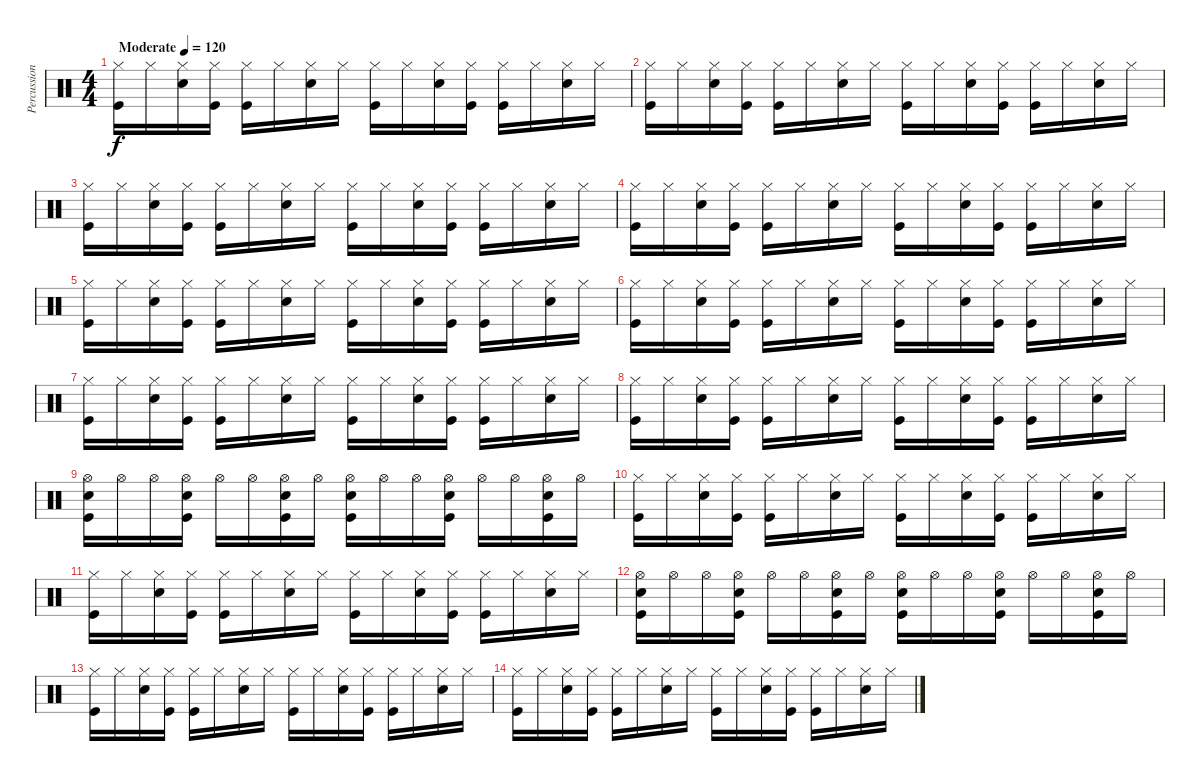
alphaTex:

\track ("Percussion" "Percussion") {instrument percussion}
\staff {score}
\articulation defaults
\ts (4 4)
\tempo (120 "Moderate")
\clef neutral
\ks c
("Hi-Hat (closed)" "Kick (hit)").16{dy f volume 13} "Hi-Hat (closed)".16 ("Hi-Hat (closed)" "Snare (hit) 2").16 ("Hi-Hat (closed)" "Kick (hit)").16 ("Hi-Hat (closed)" "Kick (hit)").16 "Hi-Hat (closed)".16 ("Hi-Hat (closed)" "Snare (hit) 2").16 "Hi-Hat (closed)".16 ("Hi-Hat (closed)" "Kick (hit)").16 "Hi-Hat (closed)".16 ("Hi-Hat (closed)" "Snare (hit) 2").16 ("Hi-Hat (closed)" "Kick (hit)").16 ("Hi-Hat (closed)" "Kick (hit)").16 "Hi-Hat (closed)".16 ("Hi-Hat (closed)" "Snare (hit) 2").16 "Hi-Hat (closed)".16 |
("Hi-Hat (closed)" "Kick (hit)").16 "Hi-Hat (closed)".16 ("Hi-Hat (closed)" "Snare (hit) 2").16 ("Hi-Hat (closed)" "Kick (hit)").16 ("Hi-Hat (closed)" "Kick (hit)").16 "Hi-Hat (closed)".16 ("Hi-Hat (closed)" "Snare (hit) 2").16 "Hi-Hat (closed)".16 ("Hi-Hat (closed)" "Kick (hit)").16 "Hi-Hat (closed)".16 ("Hi-Hat (closed)" "Snare (hit) 2").16 ("Hi-Hat (closed)" "Kick (hit)").16 ("Hi-Hat (closed)" "Kick (hit)").16 "Hi-Hat (closed)".16 ("Hi-Hat (closed)" "Snare (hit) 2").16 "Hi-Hat (closed)".16 |
("Hi-Hat (closed)" "Kick (hit)").16 "Hi-Hat (closed)".16 ("Hi-Hat (closed)" "Snare (hit) 2").16 ("Hi-Hat (closed)" "Kick (hit)").16 ("Hi-Hat (closed)" "Kick (hit)").16 "Hi-Hat (closed)".16 ("Hi-Hat (closed)" "Snare (hit) 2").16 "Hi-Hat (closed)".16 ("Hi-Hat (closed)" "Kick (hit)").16 "Hi-Hat (closed)".16 ("Hi-Hat (closed)" "Snare (hit) 2").16 ("Hi-Hat (closed)" "Kick (hit)").16 ("Hi-Hat (closed)" "Kick (hit)").16 "Hi-Hat (closed)".16 ("Hi-Hat (closed)" "Snare (hit) 2").16 "Hi-Hat (closed)".16 |
("Hi-Hat (closed)" "Kick (hit)").16 "Hi-Hat (closed)".16 ("Hi-Hat (closed)" "Snare (hit) 2").16 ("Hi-Hat (closed)" "Kick (hit)").16 ("Hi-Hat (closed)" "Kick (hit)").16 "Hi-Hat (closed)".16 ("Hi-Hat (closed)" "Snare (hit) 2").16 "Hi-Hat (closed)".16 ("Hi-Hat (closed)" "Kick (hit)").16 "Hi-Hat (closed)".16 ("Hi-Hat (closed)" "Snare (hit) 2").16 ("Hi-Hat (closed)" "Kick (hit)").16 ("Hi-Hat (closed)" "Kick (hit)").16 "Hi-Hat (closed)".16 ("Hi-Hat (closed)" "Snare (hit) 2").16 "Hi-Hat (closed)".16 |
("Hi-Hat (closed)" "Kick (hit)").16 "Hi-Hat (closed)".16 ("Hi-Hat (closed)" "Snare (hit) 2").16 ("Hi-Hat (closed)" "Kick (hit)").16 ("Hi-Hat (closed)" "Kick (hit)").16 "Hi-Hat (closed)".16 ("Hi-Hat (closed)" "Snare (hit) 2").16 "Hi-Hat (closed)".16 ("Hi-Hat (closed)" "Kick (hit)").16 "Hi-Hat (closed)".16 ("Hi-Hat (closed)" "Snare (hit) 2").16 ("Hi-Hat (closed)" "Kick (hit)").16 ("Hi-Hat (closed)" "Kick (hit)").16 "Hi-Hat (closed)".16 ("Hi-Hat (closed)" "Snare (hit) 2").16 "Hi-Hat (closed)".16 |
("Hi-Hat (closed)" "Kick (hit)").16 "Hi-Hat (closed)".16 ("Hi-Hat (closed)" "Snare (hit) 2").16 ("Hi-Hat (closed)" "Kick (hit)").16 ("Hi-Hat (closed)" "Kick (hit)").16 "Hi-Hat (closed)".16 ("Hi-Hat (closed)" "Snare (hit) 2").16 "Hi-Hat (closed)".16 ("Hi-Hat (closed)" "Kick (hit)").16 "Hi-Hat (closed)".16 ("Hi-Hat (closed)" "Snare (hit) 2").16 ("Hi-Hat (closed)" "Kick (hit)").16 ("Hi-Hat (closed)" "Kick (hit)").16 "Hi-Hat (closed)".16 ("Hi-Hat (closed)" "Snare (hit) 2").16 "Hi-Hat (closed)".16 |
("Hi-Hat (closed)" "Kick (hit)").16 "Hi-Hat (closed)".16 ("Hi-Hat (closed)" "Snare (hit) 2").16 ("Hi-Hat (closed)" "Kick (hit)").16 ("Hi-Hat (closed)" "Kick (hit)").16 "Hi-Hat (closed)".16 ("Hi-Hat (closed)" "Snare (hit) 2").16 "Hi-Hat (closed)".16 ("Hi-Hat (closed)" "Kick (hit)").16 "Hi-Hat (closed)".16 ("Hi-Hat (closed)" "Snare (hit) 2").16 ("Hi-Hat (closed)" "Kick (hit)").16 ("Hi-Hat (closed)" "Kick (hit)").16 "Hi-Hat (closed)".16 ("Hi-Hat (closed)" "Snare (hit) 2").16 "Hi-Hat (closed)".16 |
("Hi-Hat (closed)" "Kick (hit)").16 "Hi-Hat (closed)".16 ("Hi-Hat (closed)" "Snare (hit) 2").16 ("Hi-Hat (closed)" "Kick (hit)").16 ("Hi-Hat (closed)" "Kick (hit)").16 "Hi-Hat (closed)".16 ("Hi-Hat (closed)" "Snare (hit) 2").16 "Hi-Hat (closed)".16 ("Hi-Hat (closed)" "Kick (hit)").16 "Hi-Hat (closed)".16 ("Hi-Hat (closed)" "Snare (hit) 2").16 ("Hi-Hat (closed)" "Kick (hit)").16 ("Hi-Hat (closed)" "Kick (hit)").16 "Hi-Hat (closed)".16 ("Hi-Hat (closed)" "Snare (hit) 2").16 "Hi-Hat (closed)".16 |
("Hi-Hat (open)" "Snare (hit) 2" "Kick (hit)").16 "Hi-Hat (open)".16 "Hi-Hat (open)".16 ("Hi-Hat (open)" "Snare (hit) 2" "Kick (hit)").16 "Hi-Hat (open)".16 "Hi-Hat (open)".16 ("Hi-Hat (open)" "Snare (hit) 2" "Kick (hit)").16 "Hi-Hat (open)".16 ("Hi-Hat (open)" "Snare (hit) 2" "Kick (hit)").16 "Hi-Hat (open)".16 "Hi-Hat (open)".16 ("Hi-Hat (open)" "Snare (hit) 2" "Kick (hit)").16 "Hi-Hat (open)".16 "Hi-Hat (open)".16 ("Hi-Hat (open)" "Snare (hit) 2" "Kick (hit)").16 "Hi-Hat (open)".16 |
("Hi-Hat (closed)" "Kick (hit)").16 "Hi-Hat (closed)".16 ("Hi-Hat (closed)" "Snare (hit) 2").16 ("Hi-Hat (closed)" "Kick (hit)").16 ("Hi-Hat (closed)" "Kick (hit)").16 "Hi-Hat (closed)".16 ("Hi-Hat (closed)" "Snare (hit) 2").16 "Hi-Hat (closed)".16 ("Hi-Hat (closed)" "Kick (hit)").16 "Hi-Hat (closed)".16 ("Hi-Hat (closed)" "Snare (hit) 2").16 ("Hi-Hat (closed)" "Kick (hit)").16 ("Hi-Hat (closed)" "Kick (hit)").16 "Hi-Hat (closed)".16 ("Hi-Hat (closed)" "Snare (hit) 2").16 "Hi-Hat (closed)".16 |
("Hi-Hat (closed)" "Kick (hit)").16 "Hi-Hat (closed)".16 ("Hi-Hat (closed)" "Snare (hit) 2").16 ("Hi-Hat (closed)" "Kick (hit)").16 ("Hi-Hat (closed)" "Kick (hit)").16 "Hi-Hat (closed)".16 ("Hi-Hat (closed)" "Snare (hit) 2").16 "Hi-Hat (closed)".16 ("Hi-Hat (closed)" "Kick (hit)").16 "Hi-Hat (closed)".16 ("Hi-Hat (closed)" "Snare (hit) 2").16 ("Hi-Hat (closed)" "Kick (hit)").16 ("Hi-Hat (closed)" "Kick (hit)").16 "Hi-Hat (closed)".16 ("Hi-Hat (closed)" "Snare (hit) 2").16 "Hi-Hat (closed)".16 |
("Hi-Hat (open)" "Snare (hit) 2" "Kick (hit)").16 "Hi-Hat (open)".16 "Hi-Hat (open)".16 ("Hi-Hat (open)" "Snare (hit) 2" "Kick (hit)").16 "Hi-Hat (open)".16 "Hi-Hat (open)".16 ("Hi-Hat (open)" "Snare (hit) 2" "Kick (hit)").16 "Hi-Hat (open)".16 ("Hi-Hat (open)" "Snare (hit) 2" "Kick (hit)").16 "Hi-Hat (open)".16 "Hi-Hat (open)".16 ("Hi-Hat (open)" "Snare (hit) 2" "Kick (hit)").16 "Hi-Hat (open)".16 "Hi-Hat (open)".16 ("Hi-Hat (open)" "Snare (hit) 2" "Kick (hit)").16 "Hi-Hat (open)".16 |
("Hi-Hat (closed)" "Kick (hit)").16 "Hi-Hat (closed)".16 ("Hi-Hat (closed)" "Snare (hit) 2").16 ("Hi-Hat (closed)" "Kick (hit)").16 ("Hi-Hat (closed)" "Kick (hit)").16 "Hi-Hat (closed)".16 ("Hi-Hat (closed)" "Snare (hit) 2").16 "Hi-Hat (closed)".16 ("Hi-Hat (closed)" "Kick (hit)").16 "Hi-Hat (closed)".16 ("Hi-Hat (closed)" "Snare (hit) 2").16 ("Hi-Hat (closed)" "Kick (hit)").16 ("Hi-Hat (closed)" "Kick (hit)").16 "Hi-Hat (closed)".16 ("Hi-Hat (closed)" "Snare (hit) 2").16 "Hi-Hat (closed)".16 |
("Hi-Hat (closed)" "Kick (hit)").16 "Hi-Hat (closed)".16 ("Hi-Hat (closed)" "Snare (hit) 2").16 ("Hi-Hat (closed)" "Kick (hit)").16 ("Hi-Hat (closed)" "Kick (hit)").16 "Hi-Hat (closed)".16 ("Hi-Hat (closed)" "Snare (hit) 2").16 "Hi-Hat (closed)".16 ("Hi-Hat (closed)" "Kick (hit)").16 "Hi-Hat (closed)".16 ("Hi-Hat (closed)" "Snare (hit) 2").16 ("Hi-Hat (closed)" "Kick (hit)").16 ("Hi-Hat (closed)" "Kick (hit)").16 "Hi-Hat (closed)".16 ("Hi-Hat (closed)" "Snare (hit) 2").16 "Hi-Hat (closed)".16
